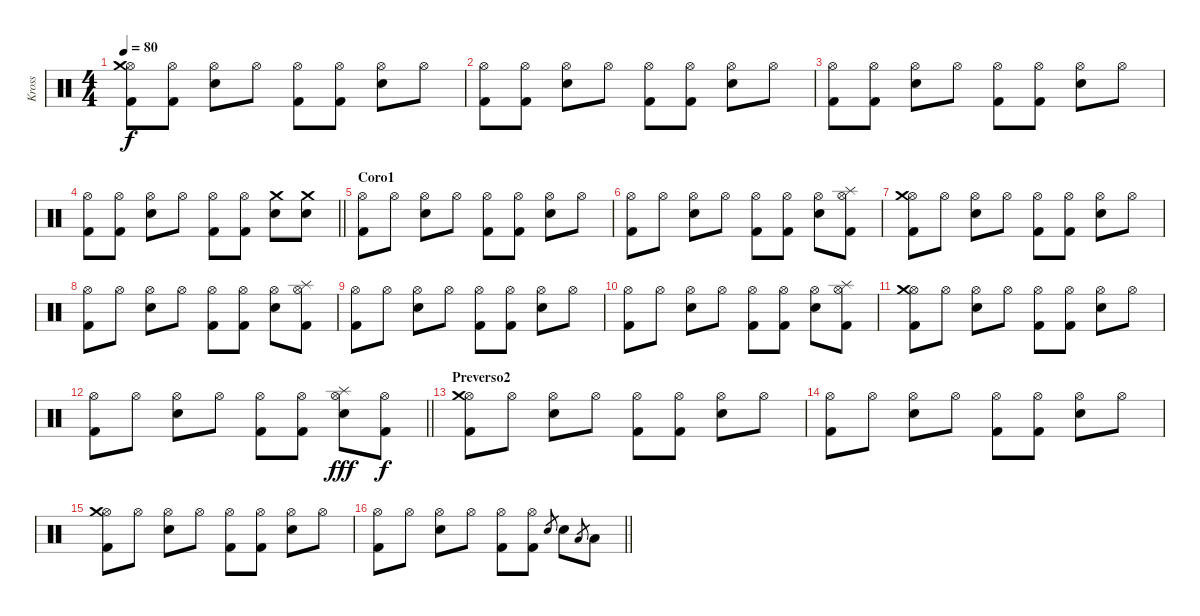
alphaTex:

\track ("Kross" "Kross") {instrument percussion}
\staff {score}
\articulation defaults
\ts (4 4)
\tempo 80
\clef neutral
\ks c
("Hi-Hat (open)" "Crash medium (hit)" "Kick (hit) 2").8{dy f} ("Hi-Hat (open)" "Kick (hit) 2").8 ("Hi-Hat (open)" "Snare (hit) 2").8 "Hi-Hat (open)".8 ("Hi-Hat (open)" "Kick (hit) 2").8 ("Hi-Hat (open)" "Kick (hit) 2").8 ("Hi-Hat (open)" "Snare (hit) 2").8 "Hi-Hat (open)".8 |
("Hi-Hat (open)" "Kick (hit) 2").8 ("Hi-Hat (open)" "Kick (hit) 2").8 ("Hi-Hat (open)" "Snare (hit) 2").8 "Hi-Hat (open)".8 ("Hi-Hat (open)" "Kick (hit) 2").8 ("Hi-Hat (open)" "Kick (hit) 2").8 ("Hi-Hat (open)" "Snare (hit) 2").8 "Hi-Hat (open)".8 |
("Hi-Hat (open)" "Kick (hit) 2").8 ("Hi-Hat (open)" "Kick (hit) 2").8 ("Hi-Hat (open)" "Snare (hit) 2").8 "Hi-Hat (open)".8 ("Hi-Hat (open)" "Kick (hit) 2").8 ("Hi-Hat (open)" "Kick (hit) 2").8 ("Hi-Hat (open)" "Snare (hit) 2").8 "Hi-Hat (open)".8 |
\barLineRight lightlight
("Hi-Hat (open)" "Kick (hit) 2").8 ("Hi-Hat (open)" "Kick (hit) 2").8 ("Hi-Hat (open)" "Snare (hit) 2").8 "Hi-Hat (open)".8 ("Hi-Hat (open)" "Kick (hit) 2").8 ("Hi-Hat (open)" "Kick (hit) 2").8 ("Crash medium (hit)" "Snare (hit) 2").8 ("Crash medium (hit)" "Snare (hit) 2").8 |
\section ("" "Coro1")
("Hi-Hat (open)" "Kick (hit) 2").8 "Hi-Hat (open)".8 ("Hi-Hat (open)" "Snare (hit) 2").8 "Hi-Hat (open)".8 ("Hi-Hat (open)" "Kick (hit) 2").8 ("Hi-Hat (open)" "Kick (hit) 2").8 ("Hi-Hat (open)" "Snare (hit) 2").8 "Hi-Hat (open)".8 |
("Hi-Hat (open)" "Kick (hit) 2").8 "Hi-Hat (open)".8 ("Hi-Hat (open)" "Snare (hit) 2").8 "Hi-Hat (open)".8 ("Hi-Hat (open)" "Kick (hit) 2").8 ("Hi-Hat (open)" "Kick (hit) 2").8 ("Hi-Hat (open)" "Snare (hit) 2").8 ("Hi-Hat (open)" "Splash (hit)" "Kick (hit) 2").8 |
("Hi-Hat (open)" "Crash medium (hit)" "Kick (hit) 2").8 "Hi-Hat (open)".8 ("Hi-Hat (open)" "Snare (hit) 2").8 "Hi-Hat (open)".8 ("Hi-Hat (open)" "Kick (hit) 2").8 ("Hi-Hat (open)" "Kick (hit) 2").8 ("Hi-Hat (open)" "Snare (hit) 2").8 "Hi-Hat (open)".8 |
("Hi-Hat (open)" "Kick (hit) 2").8 "Hi-Hat (open)".8 ("Hi-Hat (open)" "Snare (hit) 2").8 "Hi-Hat (open)".8 ("Hi-Hat (open)" "Kick (hit) 2").8 ("Hi-Hat (open)" "Kick (hit) 2").8 ("Hi-Hat (open)" "Snare (hit) 2").8 ("Hi-Hat (open)" "Splash (hit)" "Kick (hit) 2").8 |
("Hi-Hat (open)" "Kick (hit) 2").8 "Hi-Hat (open)".8 ("Hi-Hat (open)" "Snare (hit) 2").8 "Hi-Hat (open)".8 ("Hi-Hat (open)" "Kick (hit) 2").8 ("Hi-Hat (open)" "Kick (hit) 2").8 ("Hi-Hat (open)" "Snare (hit) 2").8 "Hi-Hat (open)".8 |
("Hi-Hat (open)" "Kick (hit) 2").8 "Hi-Hat (open)".8 ("Hi-Hat (open)" "Snare (hit) 2").8 "Hi-Hat (open)".8 ("Hi-Hat (open)" "Kick (hit) 2").8 ("Hi-Hat (open)" "Kick (hit) 2").8 ("Hi-Hat (open)" "Snare (hit) 2").8 ("Hi-Hat (open)" "Splash (hit)" "Kick (hit) 2").8 |
("Hi-Hat (open)" "Crash medium (hit)" "Kick (hit) 2").8 "Hi-Hat (open)".8 ("Hi-Hat (open)" "Snare (hit) 2").8 "Hi-Hat (open)".8 ("Hi-Hat (open)" "Kick (hit) 2").8 ("Hi-Hat (open)" "Kick (hit) 2").8 ("Hi-Hat (open)" "Snare (hit) 2").8 "Hi-Hat (open)".8 |
\barLineRight lightlight
("Hi-Hat (open)" "Kick (hit) 2").8 "Hi-Hat (open)".8 ("Hi-Hat (open)" "Snare (hit) 2").8 "Hi-Hat (open)".8 ("Hi-Hat (open)" "Kick (hit) 2").8 ("Hi-Hat (open)" "Kick (hit) 2").8 ("Hi-Hat (open)" "Splash (hit)" "Snare (hit) 2").8{dy fff} ("Hi-Hat (open)" "Kick (hit) 2").8{dy f} |
\section ("" "Preverso2")
("Hi-Hat (open)" "Crash medium (hit)" "Kick (hit) 2").8 "Hi-Hat (open)".8 ("Hi-Hat (open)" "Snare (hit) 2").8 "Hi-Hat (open)".8 ("Hi-Hat (open)" "Kick (hit) 2").8 ("Hi-Hat (open)" "Kick (hit) 2").8 ("Hi-Hat (open)" "Snare (hit) 2").8 "Hi-Hat (open)".8 |
("Hi-Hat (open)" "Kick (hit) 2").8 "Hi-Hat (open)".8 ("Hi-Hat (open)" "Snare (hit) 2").8 "Hi-Hat (open)".8 ("Hi-Hat (open)" "Kick (hit) 2").8 ("Hi-Hat (open)" "Kick (hit) 2").8 ("Hi-Hat (open)" "Snare (hit) 2").8 "Hi-Hat (open)".8 |
("Hi-Hat (open)" "Crash medium (hit)" "Kick (hit) 2").8 "Hi-Hat (open)".8 ("Hi-Hat (open)" "Snare (hit) 2").8 "Hi-Hat (open)".8 ("Hi-Hat (open)" "Kick (hit) 2").8 ("Hi-Hat (open)" "Kick (hit) 2").8 ("Hi-Hat (open)" "Snare (hit) 2").8 "Hi-Hat (open)".8 |
\barLineRight lightlight
("Hi-Hat (open)" "Kick (hit) 2").8 "Hi-Hat (open)".8 ("Hi-Hat (open)" "Snare (hit) 2").8 "Hi-Hat (open)".8 ("Hi-Hat (open)" "Kick (hit) 2").8 ("Hi-Hat (open)" "Kick (hit) 2").8 "Snare (hit) 2".8{gr} "Snare (hit) 2".8 "Low Tom (hit)".8{gr} "Low Tom (hit)".8
